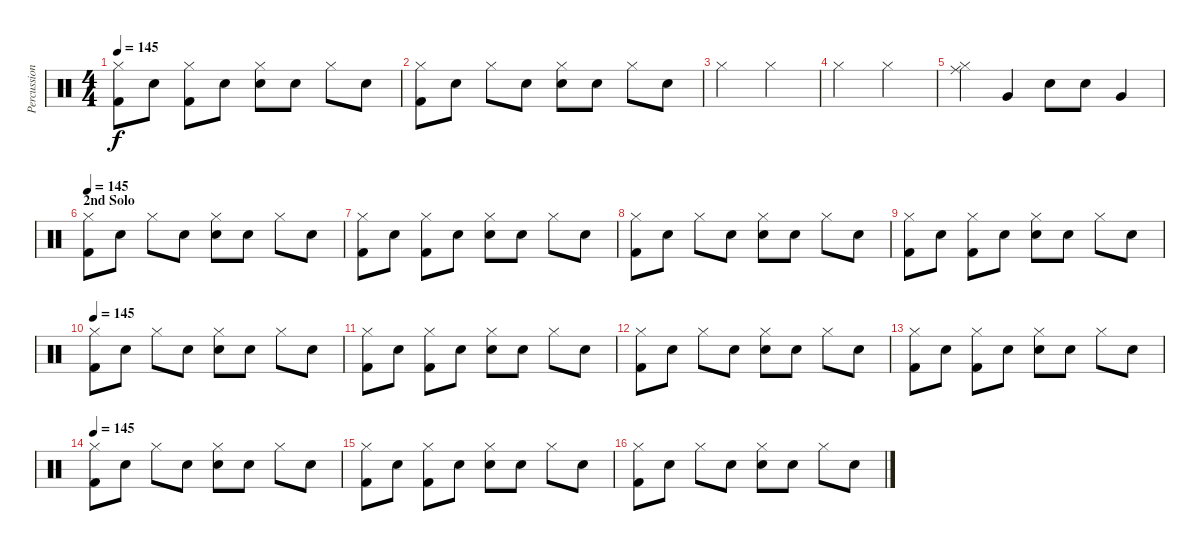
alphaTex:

\track ("Percussion" "Percussion") {instrument percussion}
\staff {score}
\articulation defaults
\ts (4 4)
\tempo 145
\clef neutral
\ks c
("Hi-Hat (closed)" "Kick (hit) 2").8{dy f} "Snare (hit)"{x}.8 ("Hi-Hat (closed)" "Kick (hit) 2").8 "Snare (hit)"{x}.8 ("Hi-Hat (closed)" "Electric Snare (hit)").8 "Snare (hit)"{x}.8 "Hi-Hat (closed)".8 "Snare (hit)"{x}.8 |
("Hi-Hat (closed)" "Kick (hit) 2").8 "Snare (hit)"{x}.8 "Hi-Hat (closed)".8 "Snare (hit)"{x}.8 ("Hi-Hat (closed)" "Electric Snare (hit)").8 "Snare (hit)"{x}.8 "Hi-Hat (closed)".8 "Snare (hit)"{x}.8 |
"Hi-Hat (closed)".2 "Hi-Hat (closed)".2 |
"Hi-Hat (closed)".2 "Hi-Hat (closed)".2 |
("Hi-Hat (closed)" "Ride (middle)").4 "Very Low Tom (hit)".4 "Electric Snare (hit)".8 "Electric Snare (hit)".8 "Very Low Tom (hit)".4 |
\section ("" "2nd Solo")
\tempo 145
("Hi-Hat (closed)" "Kick (hit) 2").8 "Snare (hit)"{x}.8 "Hi-Hat (closed)".8 "Snare (hit)"{x}.8 ("Hi-Hat (closed)" "Electric Snare (hit)").8 "Snare (hit)"{x}.8 "Hi-Hat (closed)".8 "Snare (hit)"{x}.8 |
("Hi-Hat (closed)" "Kick (hit) 2").8 "Snare (hit)"{x}.8 ("Hi-Hat (closed)" "Kick (hit) 2").8 "Snare (hit)"{x}.8 ("Hi-Hat (closed)" "Electric Snare (hit)").8 "Snare (hit)"{x}.8 "Hi-Hat (closed)".8 "Snare (hit)"{x}.8 |
("Hi-Hat (closed)" "Kick (hit) 2").8 "Snare (hit)"{x}.8 "Hi-Hat (closed)".8 "Snare (hit)"{x}.8 ("Hi-Hat (closed)" "Electric Snare (hit)").8 "Snare (hit)"{x}.8 "Hi-Hat (closed)".8 "Snare (hit)"{x}.8 |
("Hi-Hat (closed)" "Kick (hit) 2").8 "Snare (hit)"{x}.8 ("Hi-Hat (closed)" "Kick (hit) 2").8 "Snare (hit)"{x}.8 ("Hi-Hat (closed)" "Electric Snare (hit)").8 "Snare (hit)"{x}.8 "Hi-Hat (closed)".8 "Snare (hit)"{x}.8 |
\tempo 145
("Hi-Hat (closed)" "Kick (hit) 2").8 "Snare (hit)"{x}.8 "Hi-Hat (closed)".8 "Snare (hit)"{x}.8 ("Hi-Hat (closed)" "Electric Snare (hit)").8 "Snare (hit)"{x}.8 "Hi-Hat (closed)".8 "Snare (hit)"{x}.8 |
("Hi-Hat (closed)" "Kick (hit) 2").8 "Snare (hit)"{x}.8 ("Hi-Hat (closed)" "Kick (hit) 2").8 "Snare (hit)"{x}.8 ("Hi-Hat (closed)" "Electric Snare (hit)").8 "Snare (hit)"{x}.8 "Hi-Hat (closed)".8 "Snare (hit)"{x}.8 |
("Hi-Hat (closed)" "Kick (hit) 2").8 "Snare (hit)"{x}.8 "Hi-Hat (closed)".8 "Snare (hit)"{x}.8 ("Hi-Hat (closed)" "Electric Snare (hit)").8 "Snare (hit)"{x}.8 "Hi-Hat (closed)".8 "Snare (hit)"{x}.8 |
("Hi-Hat (closed)" "Kick (hit) 2").8 "Snare (hit)"{x}.8 ("Hi-Hat (closed)" "Kick (hit) 2").8 "Snare (hit)"{x}.8 ("Hi-Hat (closed)" "Electric Snare (hit)").8 "Snare (hit)"{x}.8 "Hi-Hat (closed)".8 "Snare (hit)"{x}.8 |
\tempo 145
("Hi-Hat (closed)" "Kick (hit) 2").8 "Snare (hit)"{x}.8 "Hi-Hat (closed)".8 "Snare (hit)"{x}.8 ("Hi-Hat (closed)" "Electric Snare (hit)").8 "Snare (hit)"{x}.8 "Hi-Hat (closed)".8 "Snare (hit)"{x}.8 |
("Hi-Hat (closed)" "Kick (hit) 2").8 "Snare (hit)"{x}.8 ("Hi-Hat (closed)" "Kick (hit) 2").8 "Snare (hit)"{x}.8 ("Hi-Hat (closed)" "Electric Snare (hit)").8 "Snare (hit)"{x}.8 "Hi-Hat (closed)".8 "Snare (hit)"{x}.8 |
("Hi-Hat (closed)" "Kick (hit) 2").8 "Snare (hit)"{x}.8 "Hi-Hat (closed)".8 "Snare (hit)"{x}.8 ("Hi-Hat (closed)" "Electric Snare (hit)").8 "Snare (hit)"{x}.8 "Hi-Hat (closed)".8 "Snare (hit)"{x}.8
